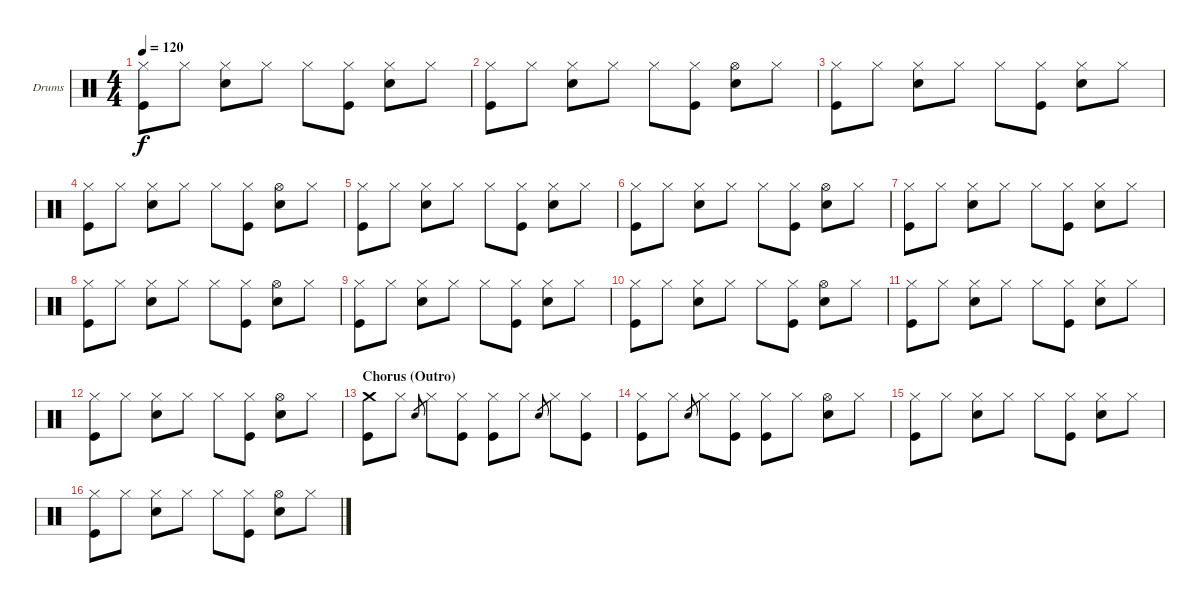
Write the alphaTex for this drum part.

\defaultSystemsLayout 4
\bracketExtendMode groupsimilarinstruments
\firstSystemTrackNameOrientation horizontal
\otherSystemsTrackNameOrientation horizontal
\track ("Drums" "Drums") {instrument percussion}
\staff {score}
\articulation defaults
\ts (4 4)
\tempo 120
\clef neutral
\ks c
("Kick (hit)" "Hi-Hat (closed)").8{dy f} "Hi-Hat (closed)".8 ("Snare (hit) 2" "Hi-Hat (closed)").8 "Hi-Hat (closed)".8 "Hi-Hat (closed)".8 ("Kick (hit)" "Hi-Hat (closed)").8 ("Snare (hit) 2" "Hi-Hat (closed)").8 "Hi-Hat (closed)".8 |
("Kick (hit)" "Hi-Hat (closed)").8 "Hi-Hat (closed)".8 ("Snare (hit) 2" "Hi-Hat (closed)").8 "Hi-Hat (closed)".8 "Hi-Hat (closed)".8 ("Kick (hit)" "Hi-Hat (closed)").8 ("Snare (hit) 2" "Hi-Hat (open)").8 "Hi-Hat (closed)".8 |
("Kick (hit)" "Hi-Hat (closed)").8 "Hi-Hat (closed)".8 ("Snare (hit) 2" "Hi-Hat (closed)").8 "Hi-Hat (closed)".8 "Hi-Hat (closed)".8 ("Kick (hit)" "Hi-Hat (closed)").8 ("Snare (hit) 2" "Hi-Hat (closed)").8 "Hi-Hat (closed)".8 |
("Kick (hit)" "Hi-Hat (closed)").8 "Hi-Hat (closed)".8 ("Snare (hit) 2" "Hi-Hat (closed)").8 "Hi-Hat (closed)".8 "Hi-Hat (closed)".8 ("Kick (hit)" "Hi-Hat (closed)").8 ("Snare (hit) 2" "Hi-Hat (open)").8 "Hi-Hat (closed)".8 |
("Kick (hit)" "Hi-Hat (closed)").8 "Hi-Hat (closed)".8 ("Snare (hit) 2" "Hi-Hat (closed)").8 "Hi-Hat (closed)".8 "Hi-Hat (closed)".8 ("Kick (hit)" "Hi-Hat (closed)").8 ("Snare (hit) 2" "Hi-Hat (closed)").8 "Hi-Hat (closed)".8 |
("Kick (hit)" "Hi-Hat (closed)").8 "Hi-Hat (closed)".8 ("Snare (hit) 2" "Hi-Hat (closed)").8 "Hi-Hat (closed)".8 "Hi-Hat (closed)".8 ("Kick (hit)" "Hi-Hat (closed)").8 ("Snare (hit) 2" "Hi-Hat (open)").8 "Hi-Hat (closed)".8 |
("Kick (hit)" "Hi-Hat (closed)").8 "Hi-Hat (closed)".8 ("Snare (hit) 2" "Hi-Hat (closed)").8 "Hi-Hat (closed)".8 "Hi-Hat (closed)".8 ("Kick (hit)" "Hi-Hat (closed)").8 ("Snare (hit) 2" "Hi-Hat (closed)").8 "Hi-Hat (closed)".8 |
("Kick (hit)" "Hi-Hat (closed)").8 "Hi-Hat (closed)".8 ("Snare (hit) 2" "Hi-Hat (closed)").8 "Hi-Hat (closed)".8 "Hi-Hat (closed)".8 ("Kick (hit)" "Hi-Hat (closed)").8 ("Snare (hit) 2" "Hi-Hat (open)").8 "Hi-Hat (closed)".8 |
("Kick (hit)" "Hi-Hat (closed)").8 "Hi-Hat (closed)".8 ("Snare (hit) 2" "Hi-Hat (closed)").8 "Hi-Hat (closed)".8 "Hi-Hat (closed)".8 ("Kick (hit)" "Hi-Hat (closed)").8 ("Snare (hit) 2" "Hi-Hat (closed)").8 "Hi-Hat (closed)".8 |
("Kick (hit)" "Hi-Hat (closed)").8 "Hi-Hat (closed)".8 ("Snare (hit) 2" "Hi-Hat (closed)").8 "Hi-Hat (closed)".8 "Hi-Hat (closed)".8 ("Kick (hit)" "Hi-Hat (closed)").8 ("Snare (hit) 2" "Hi-Hat (open)").8 "Hi-Hat (closed)".8 |
("Kick (hit)" "Hi-Hat (closed)").8 "Hi-Hat (closed)".8 ("Snare (hit) 2" "Hi-Hat (closed)").8 "Hi-Hat (closed)".8 "Hi-Hat (closed)".8 ("Kick (hit)" "Hi-Hat (closed)").8 ("Snare (hit) 2" "Hi-Hat (closed)").8 "Hi-Hat (closed)".8 |
("Kick (hit)" "Hi-Hat (closed)").8 "Hi-Hat (closed)".8 ("Snare (hit) 2" "Hi-Hat (closed)").8 "Hi-Hat (closed)".8 "Hi-Hat (closed)".8 ("Kick (hit)" "Hi-Hat (closed)").8 ("Snare (hit) 2" "Hi-Hat (open)").8 "Hi-Hat (closed)".8 |
\section ("" "Chorus (Outro)")
("Kick (hit)" "Crash medium (hit)").8 "Hi-Hat (closed)".8 "Snare (hit) 2".8{gr} "Hi-Hat (closed)".8 ("Hi-Hat (closed)" "Kick (hit)").8 ("Hi-Hat (closed)" "Kick (hit)").8 "Hi-Hat (closed)".8 "Snare (hit) 2".8{gr} "Hi-Hat (closed)".8 ("Hi-Hat (closed)" "Kick (hit)").8 |
("Kick (hit)" "Hi-Hat (closed)").8 "Hi-Hat (closed)".8 "Snare (hit) 2".8{gr} "Hi-Hat (closed)".8 ("Hi-Hat (closed)" "Kick (hit)").8 ("Hi-Hat (closed)" "Kick (hit)").8 "Hi-Hat (closed)".8 ("Snare (hit) 2" "Hi-Hat (open)").8 "Hi-Hat (closed)".8 |
("Kick (hit)" "Hi-Hat (closed)").8 "Hi-Hat (closed)".8 ("Snare (hit) 2" "Hi-Hat (closed)").8 "Hi-Hat (closed)".8 "Hi-Hat (closed)".8 ("Kick (hit)" "Hi-Hat (closed)").8 ("Snare (hit) 2" "Hi-Hat (closed)").8 "Hi-Hat (closed)".8 |
("Kick (hit)" "Hi-Hat (closed)").8 "Hi-Hat (closed)".8 ("Snare (hit) 2" "Hi-Hat (closed)").8 "Hi-Hat (closed)".8 "Hi-Hat (closed)".8 ("Kick (hit)" "Hi-Hat (closed)").8 ("Snare (hit) 2" "Hi-Hat (open)").8 "Hi-Hat (closed)".8
